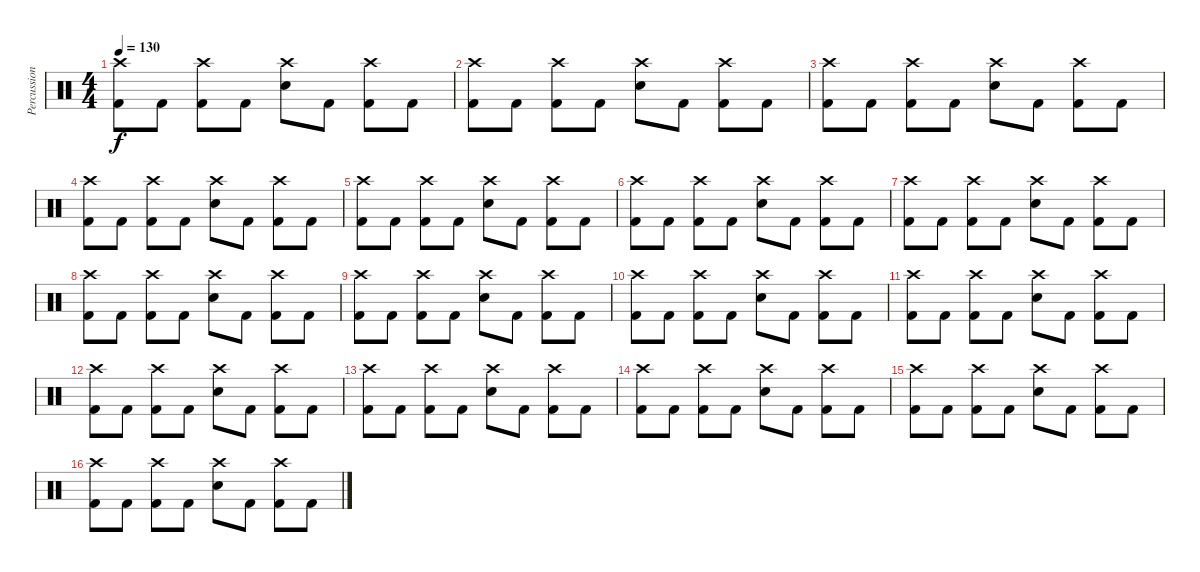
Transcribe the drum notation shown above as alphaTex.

\track ("Percussion" "Percussion") {instrument percussion}
\staff {score}
\articulation defaults
\ts (4 4)
\tempo 130
\clef neutral
\ks c
("Crash high (hit)" "Kick (hit) 2").8{dy f} "Kick (hit) 2".8 ("Crash high (hit)" "Kick (hit) 2").8 "Kick (hit) 2".8 ("Crash high (hit)" "Electric Snare (hit)").8 "Kick (hit) 2".8 ("Crash high (hit)" "Kick (hit) 2").8 "Kick (hit) 2".8 |
("Crash high (hit)" "Kick (hit) 2").8 "Kick (hit) 2".8 ("Crash high (hit)" "Kick (hit) 2").8 "Kick (hit) 2".8 ("Crash high (hit)" "Electric Snare (hit)").8 "Kick (hit) 2".8 ("Crash high (hit)" "Kick (hit) 2").8 "Kick (hit) 2".8 |
("Crash high (hit)" "Kick (hit) 2").8 "Kick (hit) 2".8 ("Crash high (hit)" "Kick (hit) 2").8 "Kick (hit) 2".8 ("Crash high (hit)" "Electric Snare (hit)").8 "Kick (hit) 2".8 ("Crash high (hit)" "Kick (hit) 2").8 "Kick (hit) 2".8 |
("Crash high (hit)" "Kick (hit) 2").8 "Kick (hit) 2".8 ("Crash high (hit)" "Kick (hit) 2").8 "Kick (hit) 2".8 ("Crash high (hit)" "Electric Snare (hit)").8 "Kick (hit) 2".8 ("Crash high (hit)" "Kick (hit) 2").8 "Kick (hit) 2".8 |
("Crash high (hit)" "Kick (hit) 2").8 "Kick (hit) 2".8 ("Crash high (hit)" "Kick (hit) 2").8 "Kick (hit) 2".8 ("Crash high (hit)" "Electric Snare (hit)").8 "Kick (hit) 2".8 ("Crash high (hit)" "Kick (hit) 2").8 "Kick (hit) 2".8 |
("Crash high (hit)" "Kick (hit) 2").8 "Kick (hit) 2".8 ("Crash high (hit)" "Kick (hit) 2").8 "Kick (hit) 2".8 ("Crash high (hit)" "Electric Snare (hit)").8 "Kick (hit) 2".8 ("Crash high (hit)" "Kick (hit) 2").8 "Kick (hit) 2".8 |
("Crash high (hit)" "Kick (hit) 2").8 "Kick (hit) 2".8 ("Crash high (hit)" "Kick (hit) 2").8 "Kick (hit) 2".8 ("Crash high (hit)" "Electric Snare (hit)").8 "Kick (hit) 2".8 ("Crash high (hit)" "Kick (hit) 2").8 "Kick (hit) 2".8 |
("Crash high (hit)" "Kick (hit) 2").8 "Kick (hit) 2".8 ("Crash high (hit)" "Kick (hit) 2").8 "Kick (hit) 2".8 ("Crash high (hit)" "Electric Snare (hit)").8 "Kick (hit) 2".8 ("Crash high (hit)" "Kick (hit) 2").8 "Kick (hit) 2".8 |
("Crash high (hit)" "Kick (hit) 2").8 "Kick (hit) 2".8 ("Crash high (hit)" "Kick (hit) 2").8 "Kick (hit) 2".8 ("Crash high (hit)" "Electric Snare (hit)").8 "Kick (hit) 2".8 ("Crash high (hit)" "Kick (hit) 2").8 "Kick (hit) 2".8 |
("Crash high (hit)" "Kick (hit) 2").8 "Kick (hit) 2".8 ("Crash high (hit)" "Kick (hit) 2").8 "Kick (hit) 2".8 ("Crash high (hit)" "Electric Snare (hit)").8 "Kick (hit) 2".8 ("Crash high (hit)" "Kick (hit) 2").8 "Kick (hit) 2".8 |
("Crash high (hit)" "Kick (hit) 2").8 "Kick (hit) 2".8 ("Crash high (hit)" "Kick (hit) 2").8 "Kick (hit) 2".8 ("Crash high (hit)" "Electric Snare (hit)").8 "Kick (hit) 2".8 ("Crash high (hit)" "Kick (hit) 2").8 "Kick (hit) 2".8 |
("Crash high (hit)" "Kick (hit) 2").8 "Kick (hit) 2".8 ("Crash high (hit)" "Kick (hit) 2").8 "Kick (hit) 2".8 ("Crash high (hit)" "Electric Snare (hit)").8 "Kick (hit) 2".8 ("Crash high (hit)" "Kick (hit) 2").8 "Kick (hit) 2".8 |
("Crash high (hit)" "Kick (hit) 2").8 "Kick (hit) 2".8 ("Crash high (hit)" "Kick (hit) 2").8 "Kick (hit) 2".8 ("Crash high (hit)" "Electric Snare (hit)").8 "Kick (hit) 2".8 ("Crash high (hit)" "Kick (hit) 2").8 "Kick (hit) 2".8 |
("Crash high (hit)" "Kick (hit) 2").8 "Kick (hit) 2".8 ("Crash high (hit)" "Kick (hit) 2").8 "Kick (hit) 2".8 ("Crash high (hit)" "Electric Snare (hit)").8 "Kick (hit) 2".8 ("Crash high (hit)" "Kick (hit) 2").8 "Kick (hit) 2".8 |
("Crash high (hit)" "Kick (hit) 2").8 "Kick (hit) 2".8 ("Crash high (hit)" "Kick (hit) 2").8 "Kick (hit) 2".8 ("Crash high (hit)" "Electric Snare (hit)").8 "Kick (hit) 2".8 ("Crash high (hit)" "Kick (hit) 2").8 "Kick (hit) 2".8 |
("Crash high (hit)" "Kick (hit) 2").8 "Kick (hit) 2".8 ("Crash high (hit)" "Kick (hit) 2").8 "Kick (hit) 2".8 ("Crash high (hit)" "Electric Snare (hit)").8 "Kick (hit) 2".8 ("Crash high (hit)" "Kick (hit) 2").8 "Kick (hit) 2".8
